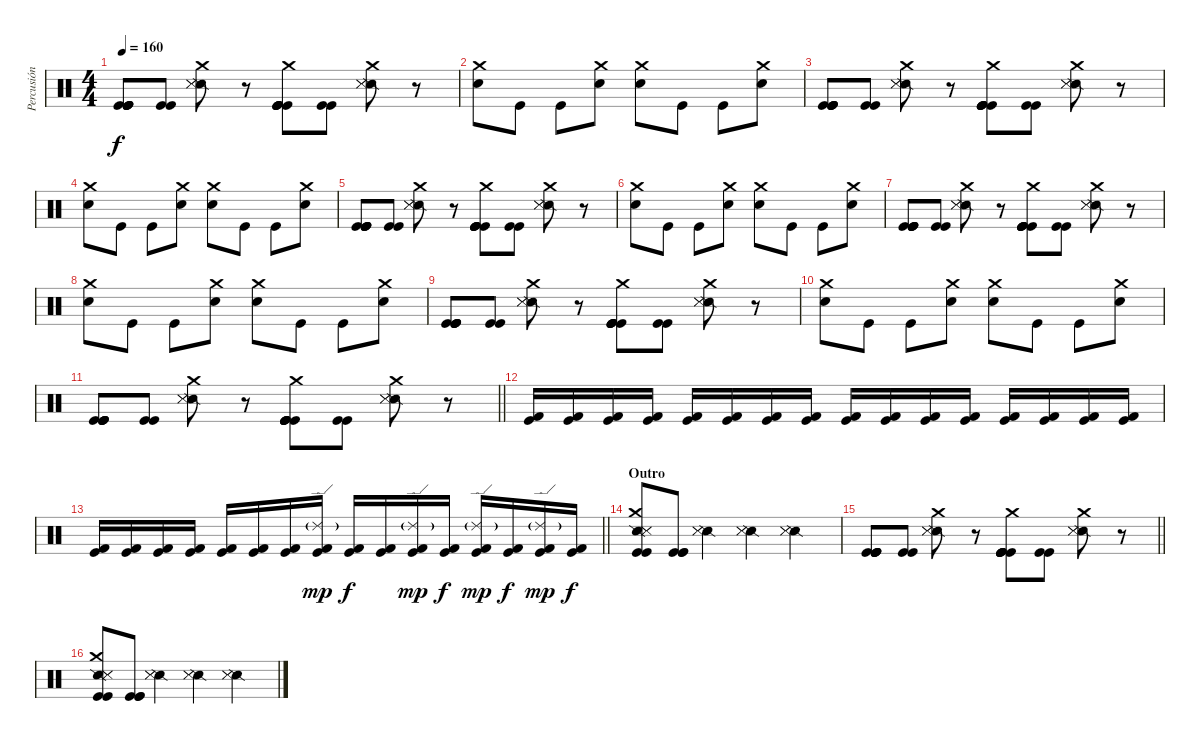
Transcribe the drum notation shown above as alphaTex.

\track ("Percusión" "Percusión") {instrument percussion}
\staff {score}
\articulation defaults
\ts (4 4)
\tempo 160
\clef neutral
\ks c
("Kick (hit)" "Kick (hit)" "Kick (hit)" "Kick (hit)" "Kick (hit)").8{dy f} ("Kick (hit)" "Kick (hit)").8 ("Crash medium (hit)" "Snare (side stick) 2" "Metronome (hit)" "Metronome (hit)").8 r.8 ("Crash medium (hit)" "Kick (hit)" "Kick (hit)" "Kick (hit)" "Kick (hit)" "Kick (hit)").8 ("Kick (hit)" "Kick (hit)").8 ("Crash medium (hit)" "Snare (side stick) 2" "Metronome (hit)" "Metronome (hit)").8 r.8 |
("Crash medium (hit)" "Electric Snare (hit)").8 "Kick (hit)".8 "Kick (hit)".8 ("Crash medium (hit)" "Electric Snare (hit)").8 ("Crash medium (hit)" "Electric Snare (hit)").8 "Kick (hit)".8 "Kick (hit)".8 ("Crash medium (hit)" "Electric Snare (hit)").8 |
("Kick (hit)" "Kick (hit)" "Kick (hit)" "Kick (hit)" "Kick (hit)").8 ("Kick (hit)" "Kick (hit)").8 ("Crash medium (hit)" "Snare (side stick) 2" "Metronome (hit)" "Metronome (hit)").8 r.8 ("Crash medium (hit)" "Kick (hit)" "Kick (hit)" "Kick (hit)" "Kick (hit)" "Kick (hit)").8 ("Kick (hit)" "Kick (hit)").8 ("Crash medium (hit)" "Snare (side stick) 2" "Metronome (hit)" "Metronome (hit)").8 r.8 |
("Crash medium (hit)" "Electric Snare (hit)").8 "Kick (hit)".8 "Kick (hit)".8 ("Crash medium (hit)" "Electric Snare (hit)").8 ("Crash medium (hit)" "Electric Snare (hit)").8 "Kick (hit)".8 "Kick (hit)".8 ("Crash medium (hit)" "Electric Snare (hit)").8 |
("Kick (hit)" "Kick (hit)" "Kick (hit)" "Kick (hit)" "Kick (hit)").8 ("Kick (hit)" "Kick (hit)").8 ("Crash medium (hit)" "Snare (side stick) 2" "Metronome (hit)" "Metronome (hit)").8 r.8 ("Crash medium (hit)" "Kick (hit)" "Kick (hit)" "Kick (hit)" "Kick (hit)" "Kick (hit)").8 ("Kick (hit)" "Kick (hit)").8 ("Crash medium (hit)" "Snare (side stick) 2" "Metronome (hit)" "Metronome (hit)").8 r.8 |
("Crash medium (hit)" "Electric Snare (hit)").8 "Kick (hit)".8 "Kick (hit)".8 ("Crash medium (hit)" "Electric Snare (hit)").8 ("Crash medium (hit)" "Electric Snare (hit)").8 "Kick (hit)".8 "Kick (hit)".8 ("Crash medium (hit)" "Electric Snare (hit)").8 |
("Kick (hit)" "Kick (hit)" "Kick (hit)" "Kick (hit)" "Kick (hit)").8 ("Kick (hit)" "Kick (hit)").8 ("Crash medium (hit)" "Snare (side stick) 2" "Metronome (hit)" "Metronome (hit)").8 r.8 ("Crash medium (hit)" "Kick (hit)" "Kick (hit)" "Kick (hit)" "Kick (hit)" "Kick (hit)").8 ("Kick (hit)" "Kick (hit)").8 ("Crash medium (hit)" "Snare (side stick) 2" "Metronome (hit)" "Metronome (hit)").8 r.8 |
("Crash medium (hit)" "Electric Snare (hit)").8 "Kick (hit)".8 "Kick (hit)".8 ("Crash medium (hit)" "Electric Snare (hit)").8 ("Crash medium (hit)" "Electric Snare (hit)").8 "Kick (hit)".8 "Kick (hit)".8 ("Crash medium (hit)" "Electric Snare (hit)").8 |
("Kick (hit)" "Kick (hit)" "Kick (hit)" "Kick (hit)" "Kick (hit)").8 ("Kick (hit)" "Kick (hit)").8 ("Crash medium (hit)" "Snare (side stick) 2" "Metronome (hit)" "Metronome (hit)").8 r.8 ("Crash medium (hit)" "Kick (hit)" "Kick (hit)" "Kick (hit)" "Kick (hit)" "Kick (hit)").8 ("Kick (hit)" "Kick (hit)").8 ("Crash medium (hit)" "Snare (side stick) 2" "Metronome (hit)" "Metronome (hit)").8 r.8 |
("Crash medium (hit)" "Electric Snare (hit)").8 "Kick (hit)".8 "Kick (hit)".8 ("Crash medium (hit)" "Electric Snare (hit)").8 ("Crash medium (hit)" "Electric Snare (hit)").8 "Kick (hit)".8 "Kick (hit)".8 ("Crash medium (hit)" "Electric Snare (hit)").8 |
\barLineRight lightlight
("Kick (hit)" "Kick (hit)" "Kick (hit)" "Kick (hit)" "Kick (hit)").8 ("Kick (hit)" "Kick (hit)").8 ("Crash medium (hit)" "Snare (side stick) 2" "Metronome (hit)" "Metronome (hit)").8 r.8 ("Crash medium (hit)" "Kick (hit)" "Kick (hit)" "Kick (hit)" "Kick (hit)" "Kick (hit)").8 ("Kick (hit)" "Kick (hit)").8 ("Crash medium (hit)" "Snare (side stick) 2" "Metronome (hit)" "Metronome (hit)").8 r.8 |
("Kick (hit) 2" "Kick (hit)").16 ("Kick (hit) 2" "Kick (hit)").16 ("Kick (hit) 2" "Kick (hit)").16 ("Kick (hit) 2" "Kick (hit)").16 ("Kick (hit) 2" "Kick (hit)").16 ("Kick (hit) 2" "Kick (hit)").16 ("Kick (hit) 2" "Kick (hit)").16 ("Kick (hit) 2" "Kick (hit)").16 ("Kick (hit) 2" "Kick (hit)").16 ("Kick (hit) 2" "Kick (hit)").16 ("Kick (hit) 2" "Kick (hit)").16 ("Kick (hit) 2" "Kick (hit)").16 ("Kick (hit) 2" "Kick (hit)").16 ("Kick (hit) 2" "Kick (hit)").16 ("Kick (hit) 2" "Kick (hit)").16 ("Kick (hit) 2" "Kick (hit)").16 |
\barLineRight lightlight
("Kick (hit) 2" "Kick (hit)").16 ("Kick (hit) 2" "Kick (hit)").16 ("Kick (hit) 2" "Kick (hit)").16 ("Kick (hit) 2" "Kick (hit)").16 ("Kick (hit) 2" "Kick (hit)").16 ("Kick (hit) 2" "Kick (hit)").16 ("Kick (hit) 2" "Kick (hit)").16 ("Ride (edge) 2"{g} "Kick (hit) 2" "Kick (hit)").16{dy mp} ("Kick (hit) 2" "Kick (hit)").16{dy f} ("Kick (hit) 2" "Kick (hit)").16 ("Ride (edge) 2"{g} "Kick (hit) 2" "Kick (hit)").16{dy mp} ("Kick (hit) 2" "Kick (hit)").16{dy f} ("Ride (edge) 2"{g} "Kick (hit) 2" "Kick (hit)").16{dy mp} ("Kick (hit) 2" "Kick (hit)").16{dy f} ("Ride (edge) 2"{g} "Kick (hit) 2" "Kick (hit)").16{dy mp} ("Kick (hit) 2" "Kick (hit)").16{dy f} |
\section ("" "Outro")
("Kick (hit)" "Kick (hit)" "Snare (side stick) 2" "Metronome (hit)" "Metronome (hit)" "Crash medium (hit)").8 ("Kick (hit)" "Kick (hit)" "Kick (hit)").8 ("Snare (side stick) 2" "Metronome (hit)" "Metronome (hit)").4 ("Snare (side stick) 2" "Metronome (hit)" "Metronome (hit)").4 ("Snare (side stick) 2" "Metronome (hit)" "Metronome (hit)").4 |
\barLineRight lightlight
("Kick (hit)" "Kick (hit)" "Kick (hit)" "Kick (hit)" "Kick (hit)").8 ("Kick (hit)" "Kick (hit)").8 ("Crash medium (hit)" "Snare (side stick) 2" "Metronome (hit)" "Metronome (hit)").8 r.8 ("Crash medium (hit)" "Kick (hit)" "Kick (hit)" "Kick (hit)" "Kick (hit)" "Kick (hit)").8 ("Kick (hit)" "Kick (hit)").8 ("Crash medium (hit)" "Snare (side stick) 2" "Metronome (hit)" "Metronome (hit)").8 r.8 |
("Kick (hit)" "Kick (hit)" "Snare (side stick) 2" "Metronome (hit)" "Metronome (hit)" "Crash medium (hit)").8 ("Kick (hit)" "Kick (hit)" "Kick (hit)").8 ("Snare (side stick) 2" "Metronome (hit)" "Metronome (hit)").4 ("Snare (side stick) 2" "Metronome (hit)" "Metronome (hit)").4 ("Snare (side stick) 2" "Metronome (hit)" "Metronome (hit)").4
